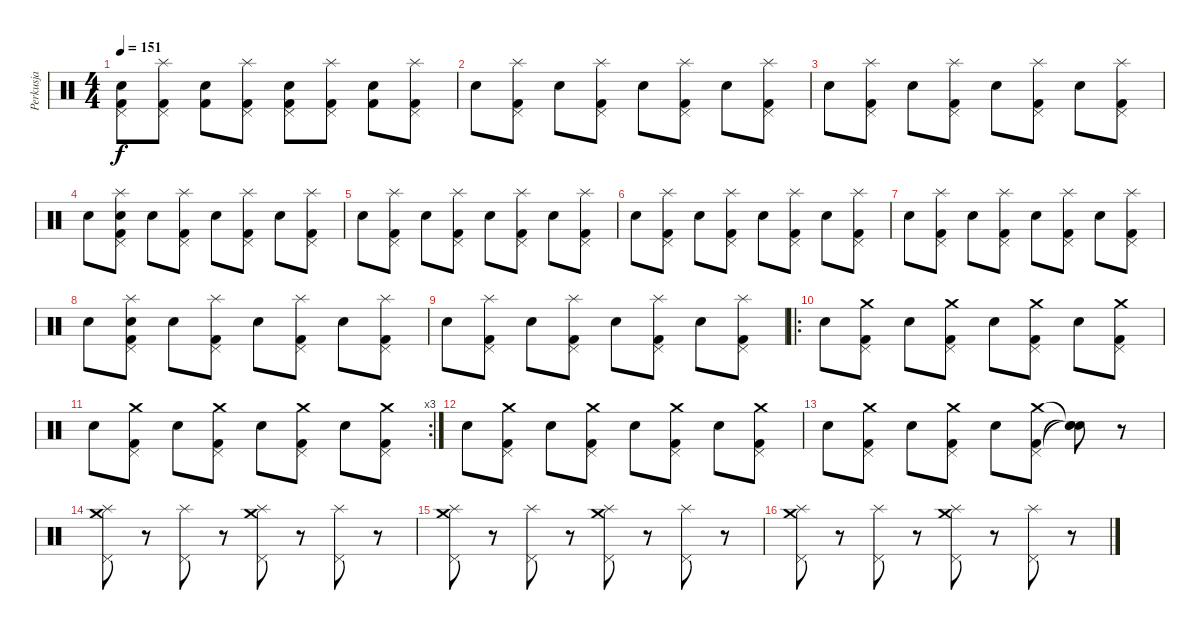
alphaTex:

\track ("Perkusja" "Perkusja") {instrument percussion}
\staff {score}
\articulation defaults
\ts (4 4)
\tempo 151
\clef neutral
\ks c
("Pedal Hi-Hat (hit)" "Kick (hit) 2" "Snare (hit) 2").8{dy f} ("Splash (hit)" "Kick (hit) 2" "Pedal Hi-Hat (hit)").8 ("Kick (hit) 2" "Snare (hit) 2").8 ("Splash (hit)" "Kick (hit) 2" "Pedal Hi-Hat (hit)").8 ("Pedal Hi-Hat (hit)" "Kick (hit) 2" "Snare (hit) 2").8 ("Splash (hit)" "Kick (hit) 2" "Pedal Hi-Hat (hit)").8 ("Kick (hit) 2" "Snare (hit) 2").8 ("Splash (hit)" "Kick (hit) 2" "Pedal Hi-Hat (hit)").8 |
"Snare (hit) 2".8 ("Splash (hit)" "Kick (hit) 2" "Pedal Hi-Hat (hit)").8 "Snare (hit) 2".8 ("Splash (hit)" "Kick (hit) 2" "Pedal Hi-Hat (hit)").8 "Snare (hit) 2".8 ("Splash (hit)" "Kick (hit) 2" "Pedal Hi-Hat (hit)").8 "Snare (hit) 2".8 ("Splash (hit)" "Kick (hit) 2" "Pedal Hi-Hat (hit)").8 |
"Snare (hit) 2".8 ("Splash (hit)" "Kick (hit) 2" "Pedal Hi-Hat (hit)").8 "Snare (hit) 2".8 ("Splash (hit)" "Kick (hit) 2" "Pedal Hi-Hat (hit)").8 "Snare (hit) 2".8 ("Splash (hit)" "Kick (hit) 2" "Pedal Hi-Hat (hit)").8 "Snare (hit) 2".8 ("Splash (hit)" "Kick (hit) 2" "Pedal Hi-Hat (hit)").8 |
"Snare (hit) 2".8 ("Splash (hit)" "Kick (hit) 2" "Pedal Hi-Hat (hit)" "Snare (hit) 2").8 "Snare (hit) 2".8 ("Splash (hit)" "Kick (hit) 2" "Pedal Hi-Hat (hit)").8 "Snare (hit) 2".8 ("Splash (hit)" "Kick (hit) 2" "Pedal Hi-Hat (hit)").8 "Snare (hit) 2".8 ("Splash (hit)" "Kick (hit) 2" "Pedal Hi-Hat (hit)").8 |
"Snare (hit) 2".8 ("Splash (hit)" "Kick (hit) 2" "Pedal Hi-Hat (hit)").8 "Snare (hit) 2".8 ("Splash (hit)" "Kick (hit) 2" "Pedal Hi-Hat (hit)").8 "Snare (hit) 2".8 ("Splash (hit)" "Kick (hit) 2" "Pedal Hi-Hat (hit)").8 "Snare (hit) 2".8 ("Splash (hit)" "Kick (hit) 2" "Pedal Hi-Hat (hit)").8 |
"Snare (hit) 2".8 ("Splash (hit)" "Kick (hit) 2" "Pedal Hi-Hat (hit)").8 "Snare (hit) 2".8 ("Splash (hit)" "Kick (hit) 2" "Pedal Hi-Hat (hit)").8 "Snare (hit) 2".8 ("Splash (hit)" "Kick (hit) 2" "Pedal Hi-Hat (hit)").8 "Snare (hit) 2".8 ("Splash (hit)" "Kick (hit) 2" "Pedal Hi-Hat (hit)").8 |
"Snare (hit) 2".8 ("Splash (hit)" "Kick (hit) 2" "Pedal Hi-Hat (hit)").8 "Snare (hit) 2".8 ("Splash (hit)" "Kick (hit) 2" "Pedal Hi-Hat (hit)").8 "Snare (hit) 2".8 ("Splash (hit)" "Kick (hit) 2" "Pedal Hi-Hat (hit)").8 "Snare (hit) 2".8 ("Splash (hit)" "Kick (hit) 2" "Pedal Hi-Hat (hit)").8 |
"Snare (hit) 2".8 ("Splash (hit)" "Kick (hit) 2" "Pedal Hi-Hat (hit)" "Snare (hit) 2").8 "Snare (hit) 2".8 ("Splash (hit)" "Kick (hit) 2" "Pedal Hi-Hat (hit)").8 "Snare (hit) 2".8 ("Splash (hit)" "Kick (hit) 2" "Pedal Hi-Hat (hit)").8 "Snare (hit) 2".8 ("Splash (hit)" "Kick (hit) 2" "Pedal Hi-Hat (hit)").8 |
"Snare (hit) 2".8 ("Splash (hit)" "Kick (hit) 2" "Pedal Hi-Hat (hit)").8 "Snare (hit) 2".8 ("Splash (hit)" "Kick (hit) 2" "Pedal Hi-Hat (hit)").8 "Snare (hit) 2".8 ("Splash (hit)" "Kick (hit) 2" "Pedal Hi-Hat (hit)").8 "Snare (hit) 2".8 ("Splash (hit)" "Kick (hit) 2" "Pedal Hi-Hat (hit)").8 |
\ro "Snare (hit) 2".8
("Crash medium (hit)" "Kick (hit) 2" "Pedal Hi-Hat (hit)").8 "Snare (hit) 2".8 ("Crash medium (hit)" "Kick (hit) 2" "Pedal Hi-Hat (hit)").8 "Snare (hit) 2".8 ("Crash medium (hit)" "Kick (hit) 2" "Pedal Hi-Hat (hit)").8 "Snare (hit) 2".8 ("Crash medium (hit)" "Kick (hit) 2" "Pedal Hi-Hat (hit)").8 |
\rc 3 "Snare (hit) 2".8
("Crash medium (hit)" "Kick (hit) 2" "Pedal Hi-Hat (hit)").8 "Snare (hit) 2".8 ("Crash medium (hit)" "Kick (hit) 2" "Pedal Hi-Hat (hit)").8 "Snare (hit) 2".8 ("Crash medium (hit)" "Kick (hit) 2" "Pedal Hi-Hat (hit)").8 "Snare (hit) 2".8 ("Crash medium (hit)" "Kick (hit) 2" "Pedal Hi-Hat (hit)").8 |
"Snare (hit) 2".8 ("Crash medium (hit)" "Kick (hit) 2" "Pedal Hi-Hat (hit)").8 "Snare (hit) 2".8 ("Crash medium (hit)" "Kick (hit) 2" "Pedal Hi-Hat (hit)").8 "Snare (hit) 2".8 ("Crash medium (hit)" "Kick (hit) 2" "Pedal Hi-Hat (hit)").8 "Snare (hit) 2".8 ("Crash medium (hit)" "Kick (hit) 2" "Pedal Hi-Hat (hit)").8 |
"Snare (hit) 2".8 ("Crash medium (hit)" "Kick (hit) 2" "Pedal Hi-Hat (hit)").8 "Snare (hit) 2".8 ("Crash medium (hit)" "Kick (hit) 2" "Pedal Hi-Hat (hit)").8 "Snare (hit) 2".8 ("Crash medium (hit)" "Kick (hit) 2" "Pedal Hi-Hat (hit)").8 ("Snare (hit)"{t} "Snare (hit)"{t} "Snare (hit)"{t}).8 r.8 |
("Crash medium (hit)" "Splash (hit)" "Pedal Hi-Hat (hit)").8 r.8 ("Splash (hit)" "Pedal Hi-Hat (hit)").8 r.8 ("Crash medium (hit)" "Splash (hit)" "Pedal Hi-Hat (hit)").8 r.8 ("Splash (hit)" "Pedal Hi-Hat (hit)").8 r.8 |
("Crash medium (hit)" "Splash (hit)" "Pedal Hi-Hat (hit)").8 r.8 ("Splash (hit)" "Pedal Hi-Hat (hit)").8 r.8 ("Crash medium (hit)" "Splash (hit)" "Pedal Hi-Hat (hit)").8 r.8 ("Splash (hit)" "Pedal Hi-Hat (hit)").8 r.8 |
("Crash medium (hit)" "Splash (hit)" "Pedal Hi-Hat (hit)").8 r.8 ("Splash (hit)" "Pedal Hi-Hat (hit)").8 r.8 ("Crash medium (hit)" "Splash (hit)" "Pedal Hi-Hat (hit)").8 r.8 ("Splash (hit)" "Pedal Hi-Hat (hit)").8 r.8
